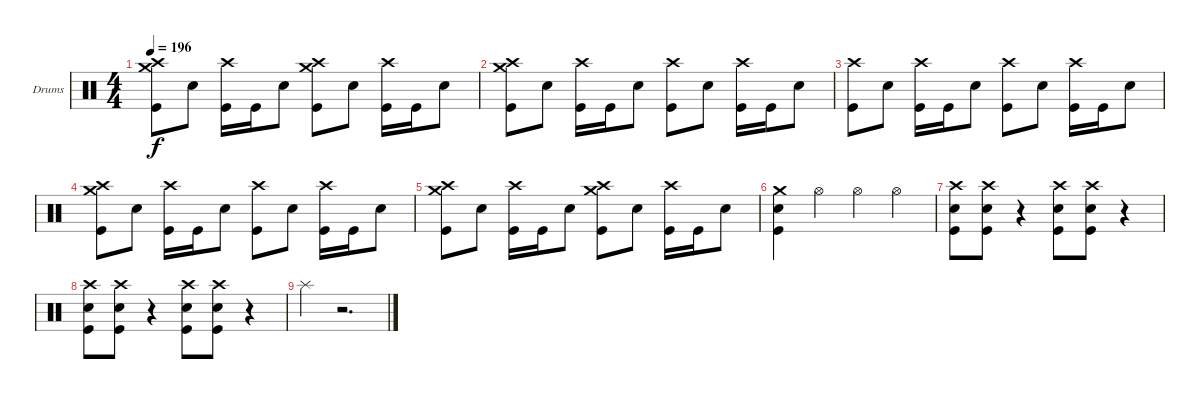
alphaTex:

\defaultSystemsLayout 4
\bracketExtendMode groupsimilarinstruments
\firstSystemTrackNameOrientation horizontal
\otherSystemsTrackNameOrientation horizontal
\track ("Lars Ulrich (Drum)" "Drums") {instrument percussion}
\staff {score}
\articulation defaults
\ts (4 4)
\tempo 196
\clef neutral
\scale
0.333333
\ks c
("Crash high (hit)" "Crash medium (hit)" "Kick (hit)").8{dy f} "Snare (hit) 2".8 ("Crash high (hit)" "Kick (hit)").16 "Kick (hit)".16 "Snare (hit) 2".8 ("Crash high (hit)" "Crash medium (hit)" "Kick (hit)").8 "Snare (hit) 2".8 ("Crash high (hit)" "Kick (hit)").16 "Kick (hit)".16 "Snare (hit) 2".8 |
\scale
0.333333 ("Crash high (hit)" "Crash medium (hit)" "Kick (hit)").8 "Snare (hit) 2".8 ("Crash high (hit)" "Kick (hit)").16 "Kick (hit)".16 "Snare (hit) 2".8 ("Crash high (hit)" "Kick (hit)").8 "Snare (hit) 2".8 ("Crash high (hit)" "Kick (hit)").16 "Kick (hit)".16 "Snare (hit) 2".8 |
\scale
0.333333 ("Crash high (hit)" "Kick (hit)").8 "Snare (hit) 2".8 ("Crash high (hit)" "Kick (hit)").16 "Kick (hit)".16 "Snare (hit) 2".8 ("Crash high (hit)" "Kick (hit)").8 "Snare (hit) 2".8 ("Crash high (hit)" "Kick (hit)").16 "Kick (hit)".16 "Snare (hit) 2".8 |
\scale
0.333333 ("Crash high (hit)" "Crash medium (hit)" "Kick (hit)").8 "Snare (hit) 2".8 ("Crash high (hit)" "Kick (hit)").16 "Kick (hit)".16 "Snare (hit) 2".8 ("Crash high (hit)" "Kick (hit)").8 "Snare (hit) 2".8 ("Crash high (hit)" "Kick (hit)").16 "Kick (hit)".16 "Snare (hit) 2".8 |
\scale
0.333333 ("Crash high (hit)" "Crash medium (hit)" "Kick (hit)").8 "Snare (hit) 2".8 ("Crash high (hit)" "Kick (hit)").16 "Kick (hit)".16 "Snare (hit) 2".8 ("Crash high (hit)" "Crash medium (hit)" "Kick (hit)").8 "Snare (hit) 2".8 ("Crash high (hit)" "Kick (hit)").16 "Kick (hit)".16 "Snare (hit) 2".8 |
\scale
0.333333 ("Crash medium (hit)" "Snare (hit) 2" "Kick (hit)").4 "Hi-Hat (open)".4 "Hi-Hat (open)".4 "Hi-Hat (open)".4 |
\scale
0.333333 ("Crash high (hit)" "Snare (hit) 2" "Kick (hit)").8 ("Crash high (hit)" "Snare (hit) 2" "Kick (hit)").8 r.4 ("Crash high (hit)" "Snare (hit) 2" "Kick (hit)").8 ("Crash high (hit)" "Snare (hit) 2" "Kick (hit)").8 r.4 |
\scale
0.333333 ("Crash high (hit)" "Snare (hit) 2" "Kick (hit)").8 ("Crash high (hit)" "Snare (hit) 2" "Kick (hit)").8 r.4 ("Crash high (hit)" "Snare (hit) 2" "Kick (hit)").8 ("Crash high (hit)" "Snare (hit) 2" "Kick (hit)").8 r.4 |
\scale
0.333333 "Splash (hit)".4 r.2{d} |
\scale
0.333333 |
\scale
0.333333 |
\scale
0.333333 |
\scale
0.333333 |
\scale
0.333333 |
\scale
0.333333 |
\scale
0.333333
